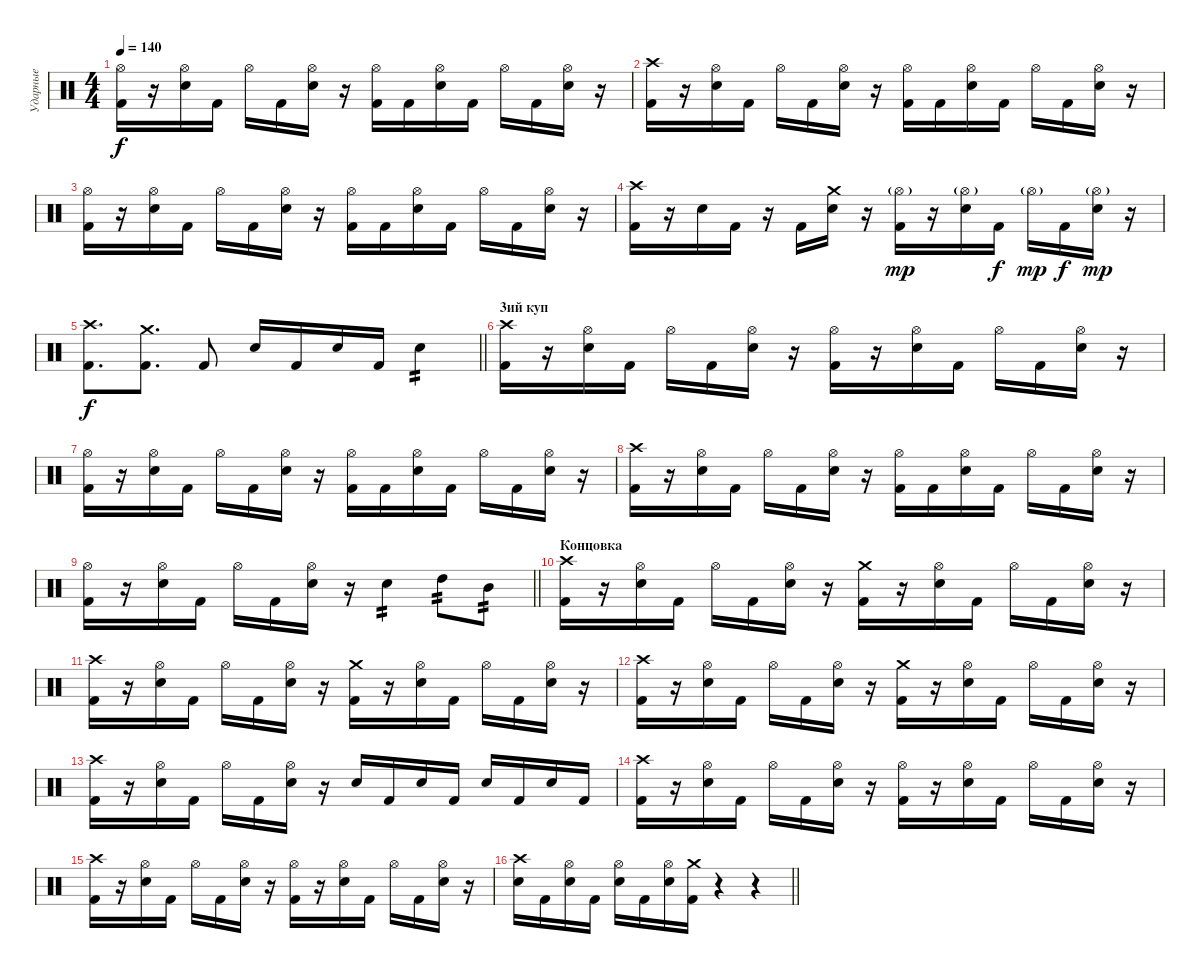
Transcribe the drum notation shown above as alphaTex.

\track ("Ударные" "Ударные") {instrument percussion}
\staff {score}
\articulation defaults
\ts (4 4)
\tempo 140
\clef neutral
\ks c
("Hi-Hat (open)" "Kick (hit) 2").16{dy f} r.16 ("Hi-Hat (open)" "Electric Snare (hit)").16 "Kick (hit) 2".16 "Hi-Hat (open)".16 "Kick (hit) 2".16 ("Hi-Hat (open)" "Electric Snare (hit)").16 r.16 ("Hi-Hat (open)" "Kick (hit) 2").16 "Kick (hit) 2".16 ("Hi-Hat (open)" "Electric Snare (hit)").16 "Kick (hit) 2".16 "Hi-Hat (open)".16 "Kick (hit) 2".16 ("Hi-Hat (open)" "Electric Snare (hit)").16 r.16 |
("Crash high (hit)" "Kick (hit) 2").16 r.16 ("Hi-Hat (open)" "Electric Snare (hit)").16 "Kick (hit) 2".16 "Hi-Hat (open)".16 "Kick (hit) 2".16 ("Hi-Hat (open)" "Electric Snare (hit)").16 r.16 ("Hi-Hat (open)" "Kick (hit) 2").16 "Kick (hit) 2".16 ("Hi-Hat (open)" "Electric Snare (hit)").16 "Kick (hit) 2".16 "Hi-Hat (open)".16 "Kick (hit) 2".16 ("Hi-Hat (open)" "Electric Snare (hit)").16 r.16 |
("Hi-Hat (open)" "Kick (hit) 2").16 r.16 ("Hi-Hat (open)" "Electric Snare (hit)").16 "Kick (hit) 2".16 "Hi-Hat (open)".16 "Kick (hit) 2".16 ("Hi-Hat (open)" "Electric Snare (hit)").16 r.16 ("Hi-Hat (open)" "Kick (hit) 2").16 "Kick (hit) 2".16 ("Hi-Hat (open)" "Electric Snare (hit)").16 "Kick (hit) 2".16 "Hi-Hat (open)".16 "Kick (hit) 2".16 ("Hi-Hat (open)" "Electric Snare (hit)").16 r.16 |
("Crash high (hit)" "Kick (hit) 2").16 r.16 "Electric Snare (hit)".16 "Kick (hit) 2".16 r.16 "Kick (hit) 2".16 ("Crash medium (hit)" "Electric Snare (hit)").16 r.16 ("Hi-Hat (open)"{g} "Kick (hit) 2").16{dy mp} r.16 ("Hi-Hat (open)"{g} "Electric Snare (hit)").16 "Kick (hit) 2".16{dy f} "Hi-Hat (open)"{g}.16{dy mp} "Kick (hit) 2".16{dy f} ("Hi-Hat (open)"{g} "Electric Snare (hit)").16{dy mp} r.16 |
\barLineRight lightlight
("Crash high (hit)" "Kick (hit) 2").8{d dy f} ("Crash medium (hit)" "Kick (hit) 2").8{d} "Kick (hit) 2".8 "Electric Snare (hit)".16 "Kick (hit) 2".16 "Electric Snare (hit)".16 "Kick (hit) 2".16 "Electric Snare (hit)".4{tp 2} |
\section ("" "3ий куп")
("Crash high (hit)" "Kick (hit) 2").16 r.16 ("Hi-Hat (open)" "Electric Snare (hit)").16 "Kick (hit) 2".16 "Hi-Hat (open)".16 "Kick (hit) 2".16 ("Hi-Hat (open)" "Electric Snare (hit)").16 r.16 ("Hi-Hat (open)" "Kick (hit) 2").16 r.16 ("Hi-Hat (open)" "Electric Snare (hit)").16 "Kick (hit) 2".16 "Hi-Hat (open)".16 "Kick (hit) 2".16 ("Hi-Hat (open)" "Electric Snare (hit)").16 r.16 |
("Hi-Hat (open)" "Kick (hit) 2").16 r.16 ("Hi-Hat (open)" "Electric Snare (hit)").16 "Kick (hit) 2".16 "Hi-Hat (open)".16 "Kick (hit) 2".16 ("Hi-Hat (open)" "Electric Snare (hit)").16 r.16 ("Hi-Hat (open)" "Kick (hit) 2").16 "Kick (hit) 2".16 ("Hi-Hat (open)" "Electric Snare (hit)").16 "Kick (hit) 2".16 "Hi-Hat (open)".16 "Kick (hit) 2".16 ("Hi-Hat (open)" "Electric Snare (hit)").16 r.16 |
("Crash high (hit)" "Kick (hit) 2").16 r.16 ("Hi-Hat (open)" "Electric Snare (hit)").16 "Kick (hit) 2".16 "Hi-Hat (open)".16 "Kick (hit) 2".16 ("Hi-Hat (open)" "Electric Snare (hit)").16 r.16 ("Hi-Hat (open)" "Kick (hit) 2").16 "Kick (hit) 2".16 ("Hi-Hat (open)" "Electric Snare (hit)").16 "Kick (hit) 2".16 "Hi-Hat (open)".16 "Kick (hit) 2".16 ("Hi-Hat (open)" "Electric Snare (hit)").16 r.16 |
\barLineRight lightlight
("Hi-Hat (open)" "Kick (hit) 2").16 r.16 ("Hi-Hat (open)" "Electric Snare (hit)").16 "Kick (hit) 2".16 "Hi-Hat (open)".16 "Kick (hit) 2".16 ("Hi-Hat (open)" "Electric Snare (hit)").16 r.16 "Electric Snare (hit)".4{tp 2} "High Tom (hit)".8{tp 2} "Mid Tom (hit)".8{tp 2} |
\section ("" "Концовка")
("Crash high (hit)" "Kick (hit) 2").16 r.16 ("Hi-Hat (open)" "Electric Snare (hit)").16 "Kick (hit) 2".16 "Hi-Hat (open)".16 "Kick (hit) 2".16 ("Hi-Hat (open)" "Electric Snare (hit)").16 r.16 ("Crash medium (hit)" "Kick (hit) 2").16 r.16 ("Hi-Hat (open)" "Electric Snare (hit)").16 "Kick (hit) 2".16 "Hi-Hat (open)".16 "Kick (hit) 2".16 ("Hi-Hat (open)" "Electric Snare (hit)").16 r.16 |
("Crash high (hit)" "Kick (hit) 2").16 r.16 ("Hi-Hat (open)" "Electric Snare (hit)").16 "Kick (hit) 2".16 "Hi-Hat (open)".16 "Kick (hit) 2".16 ("Hi-Hat (open)" "Electric Snare (hit)").16 r.16 ("Crash medium (hit)" "Kick (hit) 2").16 r.16 ("Hi-Hat (open)" "Electric Snare (hit)").16 "Kick (hit) 2".16 "Hi-Hat (open)".16 "Kick (hit) 2".16 ("Hi-Hat (open)" "Electric Snare (hit)").16 r.16 |
("Crash high (hit)" "Kick (hit) 2").16 r.16 ("Hi-Hat (open)" "Electric Snare (hit)").16 "Kick (hit) 2".16 "Hi-Hat (open)".16 "Kick (hit) 2".16 ("Hi-Hat (open)" "Electric Snare (hit)").16 r.16 ("Crash medium (hit)" "Kick (hit) 2").16 r.16 ("Hi-Hat (open)" "Electric Snare (hit)").16 "Kick (hit) 2".16 "Hi-Hat (open)".16 "Kick (hit) 2".16 ("Hi-Hat (open)" "Electric Snare (hit)").16 r.16 |
("Crash high (hit)" "Kick (hit) 2").16 r.16 ("Hi-Hat (open)" "Electric Snare (hit)").16 "Kick (hit) 2".16 "Hi-Hat (open)".16 "Kick (hit) 2".16 ("Hi-Hat (open)" "Electric Snare (hit)").16 r.16 "Electric Snare (hit)".16 "Kick (hit) 2".16 "Electric Snare (hit)".16 "Kick (hit) 2".16 "Electric Snare (hit)".16 "Kick (hit) 2".16 "Electric Snare (hit)".16 "Kick (hit) 2".16 |
("Crash high (hit)" "Kick (hit) 2").16 r.16 ("Hi-Hat (open)" "Electric Snare (hit)").16 "Kick (hit) 2".16 "Hi-Hat (open)".16 "Kick (hit) 2".16 ("Hi-Hat (open)" "Electric Snare (hit)").16 r.16 ("Hi-Hat (open)" "Kick (hit) 2").16 r.16 ("Hi-Hat (open)" "Electric Snare (hit)").16 "Kick (hit) 2".16 "Hi-Hat (open)".16 "Kick (hit) 2".16 ("Hi-Hat (open)" "Electric Snare (hit)").16 r.16 |
("Crash high (hit)" "Kick (hit) 2").16 r.16 ("Hi-Hat (open)" "Electric Snare (hit)").16 "Kick (hit) 2".16 "Hi-Hat (open)".16 "Kick (hit) 2".16 ("Hi-Hat (open)" "Electric Snare (hit)").16 r.16 ("Hi-Hat (open)" "Kick (hit) 2").16 r.16 ("Hi-Hat (open)" "Electric Snare (hit)").16 "Kick (hit) 2".16 "Hi-Hat (open)".16 "Kick (hit) 2".16 ("Hi-Hat (open)" "Electric Snare (hit)").16 r.16 |
\barLineRight lightlight
("Crash high (hit)" "Electric Snare (hit)").16 "Kick (hit) 2".16 ("Hi-Hat (open)" "Electric Snare (hit)").16 "Kick (hit) 2".16 ("Hi-Hat (open)" "Electric Snare (hit)").16 "Kick (hit) 2".16 ("Hi-Hat (open)" "Electric Snare (hit)").16 ("Crash medium (hit)" "Kick (hit) 2").16 r.4 r.4
